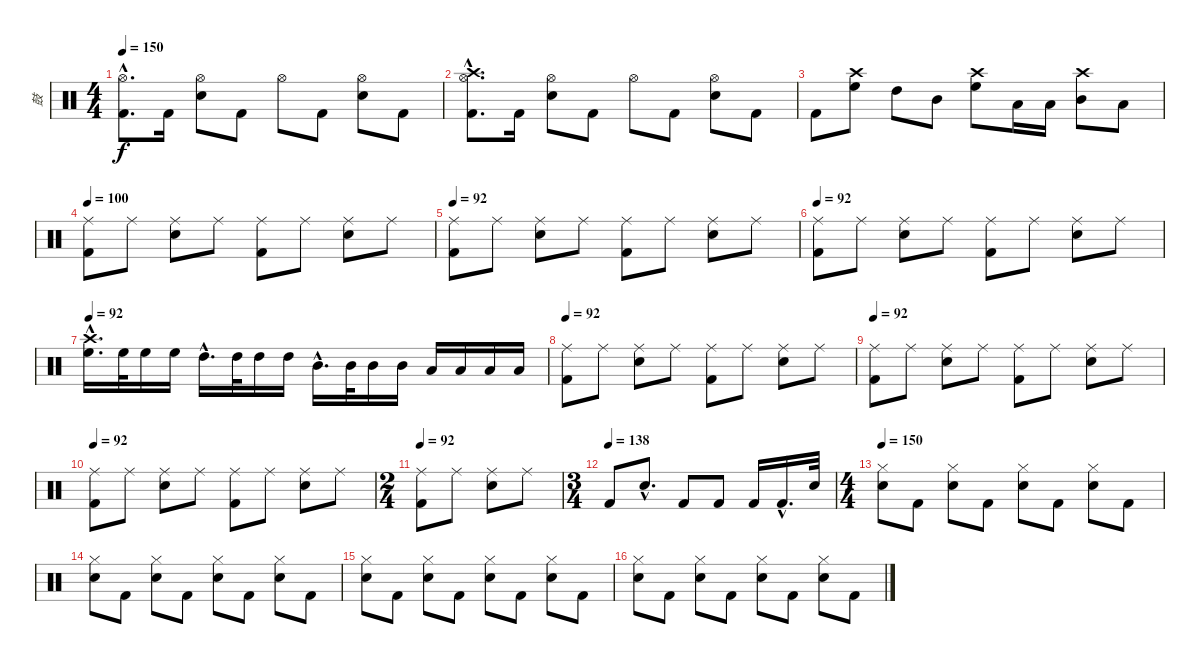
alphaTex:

\track ("鼓" "鼓") {instrument percussion}
\staff {score}
\articulation defaults
\ts (4 4)
\tempo 150
\clef neutral
\ks c
("Hi-Hat (open)"{hac} "Kick (hit) 2"{hac}).8{d dy f} "Kick (hit) 2".16 ("Hi-Hat (open)" "Electric Snare (hit)").8 "Kick (hit) 2".8 "Hi-Hat (open)".8 "Kick (hit) 2".8 ("Hi-Hat (open)" "Electric Snare (hit)").8 "Kick (hit) 2".8 |
("Crash high (hit)"{hac} "Hi-Hat (open)"{hac} "Kick (hit) 2"{hac}).8{d} "Kick (hit) 2".16 ("Hi-Hat (open)" "Electric Snare (hit)").8 "Kick (hit) 2".8 "Hi-Hat (open)".8 "Kick (hit) 2".8 ("Hi-Hat (open)" "Electric Snare (hit)").8 "Kick (hit) 2".8 |
"Kick (hit) 2".8 ("Crash high (hit)" "High Floor Tom (hit)").8 "High Tom (hit)".8 "Mid Tom (hit)".8 ("Crash high (hit)" "High Floor Tom (hit)").8 "Low Tom (hit)".16 "Low Tom (hit)".16 ("Crash high (hit)" "Mid Tom (hit)").8 "Low Tom (hit)".8 |
\tempo 92
\tempo 100
("Ride (middle)" "Kick (hit) 2").8 "Ride (middle)".8 ("Ride (middle)" "Electric Snare (hit)").8 "Ride (middle)".8 ("Ride (middle)" "Kick (hit) 2").8 "Ride (middle)".8 ("Ride (middle)" "Electric Snare (hit)").8 "Ride (middle)".8 |
\tempo 92
("Ride (middle)" "Kick (hit) 2").8 "Ride (middle)".8 ("Ride (middle)" "Electric Snare (hit)").8 "Ride (middle)".8 ("Ride (middle)" "Kick (hit) 2").8 "Ride (middle)".8 ("Ride (middle)" "Electric Snare (hit)").8 "Ride (middle)".8 |
\tempo 92
("Ride (middle)" "Kick (hit) 2").8 "Ride (middle)".8 ("Ride (middle)" "Electric Snare (hit)").8 "Ride (middle)".8 ("Ride (middle)" "Kick (hit) 2").8 "Ride (middle)".8 ("Ride (middle)" "Electric Snare (hit)").8 "Ride (middle)".8 |
\tempo 92
("Crash high (hit)"{hac} "High Floor Tom (hit)"{hac}).16{d} "High Floor Tom (hit)".32 "High Floor Tom (hit)".16 "High Floor Tom (hit)".16 "High Tom (hit)"{hac}.16{d} "High Tom (hit)".32 "High Tom (hit)".16 "High Tom (hit)".16 "Mid Tom (hit)"{hac}.16{d} "Mid Tom (hit)".32 "Mid Tom (hit)".16 "Mid Tom (hit)".16 "Low Tom (hit)".16 "Low Tom (hit)".16 "Low Tom (hit)".16 "Low Tom (hit)".16 |
\tempo 92
("Ride (middle)" "Kick (hit) 2").8 "Ride (middle)".8 ("Ride (middle)" "Electric Snare (hit)").8 "Ride (middle)".8 ("Ride (middle)" "Kick (hit) 2").8 "Ride (middle)".8 ("Ride (middle)" "Electric Snare (hit)").8 "Ride (middle)".8 |
\tempo 92
("Ride (middle)" "Kick (hit) 2").8 "Ride (middle)".8 ("Ride (middle)" "Electric Snare (hit)").8 "Ride (middle)".8 ("Ride (middle)" "Kick (hit) 2").8 "Ride (middle)".8 ("Ride (middle)" "Electric Snare (hit)").8 "Ride (middle)".8 |
\tempo 92
("Ride (middle)" "Kick (hit) 2").8 "Ride (middle)".8 ("Ride (middle)" "Electric Snare (hit)").8 "Ride (middle)".8 ("Ride (middle)" "Kick (hit) 2").8 "Ride (middle)".8 ("Ride (middle)" "Electric Snare (hit)").8 "Ride (middle)".8 |
\ts (2 4)
\tempo 92
("Ride (middle)" "Kick (hit) 2").8 "Ride (middle)".8 ("Ride (middle)" "Electric Snare (hit)").8 "Ride (middle)".8 |
\ts (3 4)
\tempo (138)
"Kick (hit) 2".8 "Electric Snare (hit)"{hac}.8{d} "Kick (hit) 2".8 "Kick (hit) 2".8 "Kick (hit) 2".16 "Kick (hit) 2"{hac}.16{d} "Electric Snare (hit)".32 |
\ts (4 4)
\tempo 150
("Hi-Hat (closed)" "Electric Snare (hit)").8 "Kick (hit) 2".8 ("Hi-Hat (closed)" "Electric Snare (hit)").8 "Kick (hit) 2".8 ("Hi-Hat (closed)" "Electric Snare (hit)").8 "Kick (hit) 2".8 ("Hi-Hat (closed)" "Electric Snare (hit)").8 "Kick (hit) 2".8 |
("Hi-Hat (closed)" "Electric Snare (hit)").8 "Kick (hit) 2".8 ("Hi-Hat (closed)" "Electric Snare (hit)").8 "Kick (hit) 2".8 ("Hi-Hat (closed)" "Electric Snare (hit)").8 "Kick (hit) 2".8 ("Hi-Hat (closed)" "Electric Snare (hit)").8 "Kick (hit) 2".8 |
("Hi-Hat (closed)" "Electric Snare (hit)").8 "Kick (hit) 2".8 ("Hi-Hat (closed)" "Electric Snare (hit)").8 "Kick (hit) 2".8 ("Hi-Hat (closed)" "Electric Snare (hit)").8 "Kick (hit) 2".8 ("Hi-Hat (closed)" "Electric Snare (hit)").8 "Kick (hit) 2".8 |
("Hi-Hat (closed)" "Electric Snare (hit)").8 "Kick (hit) 2".8 ("Hi-Hat (closed)" "Electric Snare (hit)").8 "Kick (hit) 2".8 ("Hi-Hat (closed)" "Electric Snare (hit)").8 "Kick (hit) 2".8 ("Hi-Hat (closed)" "Electric Snare (hit)").8 "Kick (hit) 2".8
